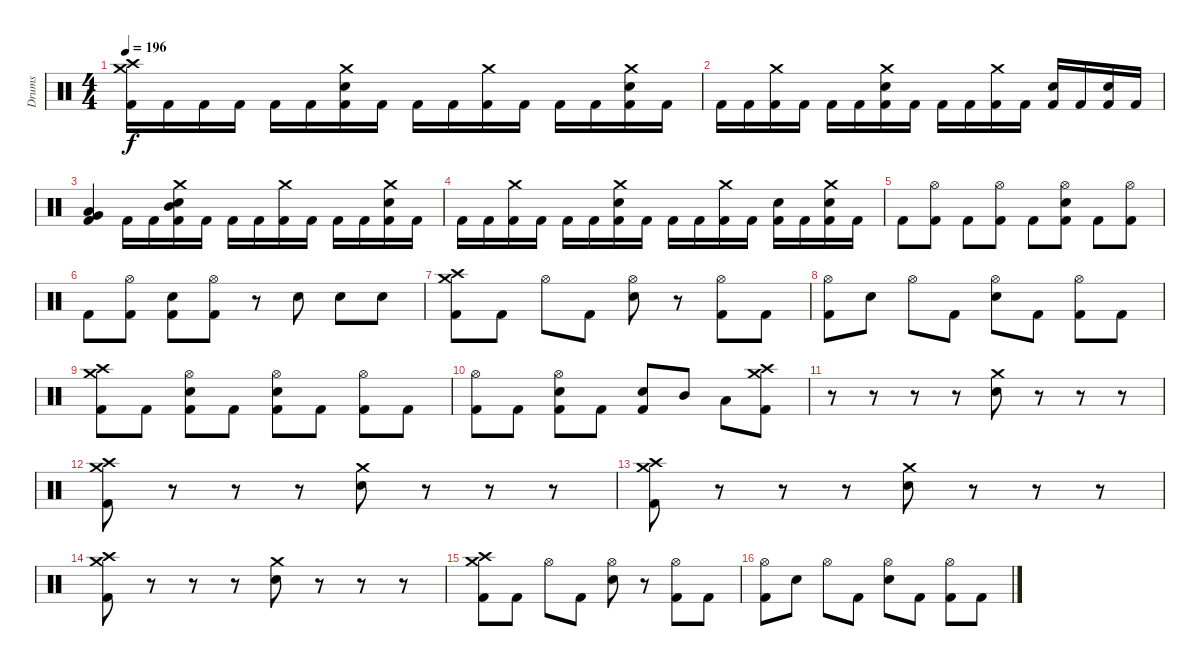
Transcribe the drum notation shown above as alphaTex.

\track ("Drums" "Drums") {instrument percussion}
\staff {score}
\articulation defaults
\ts (4 4)
\tempo 196
\clef neutral
\ks c
("Crash high (hit)" "Crash medium (hit)" "Kick (hit) 2").16{dy f} "Kick (hit) 2".16 "Kick (hit) 2".16 "Kick (hit) 2".16 "Kick (hit) 2".16 "Kick (hit) 2".16 ("Crash medium (hit)" "Snare (hit) 2" "Kick (hit) 2").16 "Kick (hit) 2".16 "Kick (hit) 2".16 "Kick (hit) 2".16 ("Crash medium (hit)" "Kick (hit) 2").16 "Kick (hit) 2".16 "Kick (hit) 2".16 "Kick (hit) 2".16 ("Crash medium (hit)" "Snare (hit) 2" "Kick (hit) 2").16 "Kick (hit) 2".16 |
"Kick (hit) 2".16 "Kick (hit) 2".16 ("Crash medium (hit)" "Kick (hit) 2").16 "Kick (hit) 2".16 "Kick (hit) 2".16 "Kick (hit) 2".16 ("Crash medium (hit)" "Snare (hit) 2" "Kick (hit) 2").16 "Kick (hit) 2".16 "Kick (hit) 2".16 "Kick (hit) 2".16 ("Crash medium (hit)" "Kick (hit) 2").16 "Kick (hit) 2".16 ("Snare (hit) 2" "Kick (hit) 2").16 "Kick (hit) 2".16 ("Snare (hit) 2" "Kick (hit) 2").16 "Kick (hit) 2".16 |
("Very Low Tom (hit)" "Low Floor Tom (hit)" "Kick (hit) 2").4 "Kick (hit) 2".16 "Kick (hit) 2".16 ("Mid Tom (hit)" "Crash medium (hit)" "Snare (hit) 2" "Kick (hit) 2").16 "Kick (hit) 2".16 "Kick (hit) 2".16 "Kick (hit) 2".16 ("Crash medium (hit)" "Kick (hit) 2").16 "Kick (hit) 2".16 "Kick (hit) 2".16 "Kick (hit) 2".16 ("Crash medium (hit)" "Snare (hit) 2" "Kick (hit) 2").16 "Kick (hit) 2".16 |
"Kick (hit) 2".16 "Kick (hit) 2".16 ("Crash medium (hit)" "Kick (hit) 2").16 "Kick (hit) 2".16 "Kick (hit) 2".16 "Kick (hit) 2".16 ("Crash medium (hit)" "Snare (hit) 2" "Kick (hit) 2").16 "Kick (hit) 2".16 "Kick (hit) 2".16 "Kick (hit) 2".16 ("Crash medium (hit)" "Kick (hit) 2").16 "Kick (hit) 2".16 ("Snare (hit) 2" "Kick (hit) 2").16 "Kick (hit) 2".16 ("Crash medium (hit)" "Snare (hit) 2" "Kick (hit) 2").16 "Kick (hit) 2".16 |
"Kick (hit) 2".8 ("Hi-Hat (open)" "Kick (hit) 2").8 "Kick (hit) 2".8 ("Hi-Hat (open)" "Kick (hit) 2").8 "Kick (hit) 2".8 ("Hi-Hat (open)" "Snare (hit) 2" "Kick (hit) 2").8 "Kick (hit) 2".8 ("Hi-Hat (open)" "Kick (hit) 2").8 |
"Kick (hit) 2".8 ("Hi-Hat (open)" "Kick (hit) 2").8 ("Snare (hit) 2" "Kick (hit) 2").8 ("Hi-Hat (open)" "Kick (hit) 2").8 r.8 "Snare (hit) 2".8 "Snare (hit) 2".8 "Snare (hit) 2".8 |
("Crash high (hit)" "Crash medium (hit)" "Kick (hit) 2").8 "Kick (hit) 2".8 "Hi-Hat (open)".8 "Kick (hit) 2".8 ("Hi-Hat (open)" "Snare (hit) 2").8 r.8 ("Hi-Hat (open)" "Kick (hit) 2").8 "Kick (hit) 2".8 |
("Hi-Hat (open)" "Kick (hit) 2").8 "Snare (hit) 2".8 "Hi-Hat (open)".8 "Kick (hit) 2".8 ("Hi-Hat (open)" "Snare (hit) 2").8 "Kick (hit) 2".8 ("Hi-Hat (open)" "Kick (hit) 2").8 "Kick (hit) 2".8 |
("Crash high (hit)" "Crash medium (hit)" "Kick (hit) 2").8 "Kick (hit) 2".8 ("Hi-Hat (open)" "Snare (hit) 2" "Kick (hit) 2").8 "Kick (hit) 2".8 ("Hi-Hat (open)" "Snare (hit) 2" "Kick (hit) 2").8 "Kick (hit) 2".8 ("Hi-Hat (open)" "Kick (hit) 2").8 "Kick (hit) 2".8 |
("Hi-Hat (open)" "Kick (hit) 2").8 "Kick (hit) 2".8 ("Hi-Hat (open)" "Snare (hit) 2" "Kick (hit) 2").8 "Kick (hit) 2".8 ("Snare (hit) 2" "Kick (hit) 2").8 "Mid Tom (hit)".8 "Low Tom (hit)".8 ("Crash high (hit)" "Crash medium (hit)" "Kick (hit) 2").8 |
r.8 r.8 r.8 r.8 ("Crash medium (hit)" "Snare (hit) 2").8 r.8 r.8 r.8 |
("Crash high (hit)" "Crash medium (hit)" "Kick (hit) 2").8 r.8 r.8 r.8 ("Crash medium (hit)" "Snare (hit) 2").8 r.8 r.8 r.8 |
("Crash high (hit)" "Crash medium (hit)" "Kick (hit) 2").8 r.8 r.8 r.8 ("Crash medium (hit)" "Snare (hit) 2").8 r.8 r.8 r.8 |
("Crash high (hit)" "Crash medium (hit)" "Kick (hit) 2").8 r.8 r.8 r.8 ("Crash medium (hit)" "Snare (hit) 2").8 r.8 r.8 r.8 |
("Crash high (hit)" "Crash medium (hit)" "Kick (hit) 2").8 "Kick (hit) 2".8 "Hi-Hat (open)".8 "Kick (hit) 2".8 ("Hi-Hat (open)" "Snare (hit) 2").8 r.8 ("Hi-Hat (open)" "Kick (hit) 2").8 "Kick (hit) 2".8 |
("Hi-Hat (open)" "Kick (hit) 2").8 "Snare (hit) 2".8 "Hi-Hat (open)".8 "Kick (hit) 2".8 ("Hi-Hat (open)" "Snare (hit) 2").8 "Kick (hit) 2".8 ("Hi-Hat (open)" "Kick (hit) 2").8 "Kick (hit) 2".8
